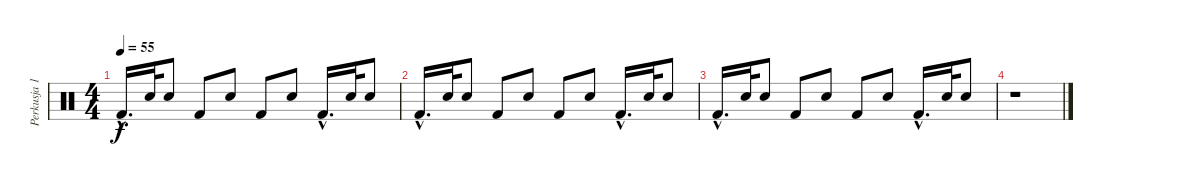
\track ("Perkusja 1" "Perkusja 1") {instrument percussion}
\staff {score}
\articulation defaults
\ts (4 4)
\tempo 55
\clef neutral
\ks c "Kick (hit) 2"{hac}.16{d dy f} "Electric Snare (hit)".32 "Electric Snare (hit)".8 "Kick (hit) 2".8 "Electric Snare (hit)".8 "Kick (hit) 2".8 "Electric Snare (hit)".8 "Kick (hit) 2"{hac}.16{d} "Electric Snare (hit)".32 "Electric Snare (hit)".8
|
"Kick (hit) 2"{hac}.16{d} "Electric Snare (hit)".32 "Electric Snare (hit)".8 "Kick (hit) 2".8 "Electric Snare (hit)".8 "Kick (hit) 2".8 "Electric Snare (hit)".8 "Kick (hit) 2"{hac}.16{d} "Electric Snare (hit)".32 "Electric Snare (hit)".8 |
"Kick (hit) 2"{hac}.16{d} "Electric Snare (hit)".32 "Electric Snare (hit)".8 "Kick (hit) 2".8 "Electric Snare (hit)".8 "Kick (hit) 2".8 "Electric Snare (hit)".8 "Kick (hit) 2"{hac}.16{d} "Electric Snare (hit)".32 "Electric Snare (hit)".8 |
r.1
